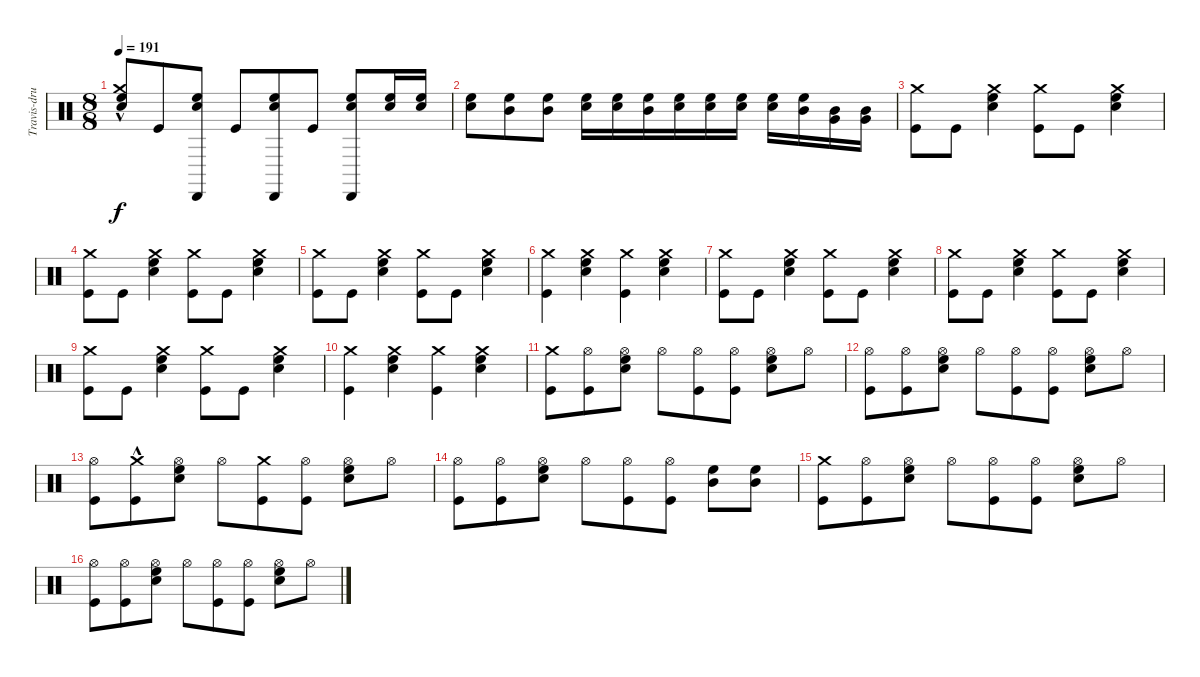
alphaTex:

\track ("Travis-drums" "Travis-dru") {instrument percussion}
\staff {score}
\articulation defaults
\ts (8 8)
\tempo 191
\clef neutral
\ks c
("High Floor Tom (hit)" "Crash medium (hit)"{hac} "Electric Snare (hit)").8{dy f} "Kick (hit)".8 ("High Floor Tom (hit)" "Cabasa (hit)" "Electric Snare (hit)").8 "Kick (hit)".8 ("High Floor Tom (hit)" "Cabasa (hit)" "Electric Snare (hit)").8 "Kick (hit)".8 ("High Floor Tom (hit)" "Cabasa (hit)" "Electric Snare (hit)").8 ("High Floor Tom (hit)" "Electric Snare (hit)").16 ("High Floor Tom (hit)" "Electric Snare (hit)").16 |
("High Floor Tom (hit)" "Electric Snare (hit)").8 ("Mid Tom (hit)" "High Floor Tom (hit)").8 ("Mid Tom (hit)" "High Floor Tom (hit)").8 ("High Floor Tom (hit)" "Electric Snare (hit)").16 ("High Floor Tom (hit)" "Electric Snare (hit)").16 ("Mid Tom (hit)" "High Floor Tom (hit)").16 ("Electric Snare (hit)" "High Floor Tom (hit)").16 ("High Floor Tom (hit)" "Electric Snare (hit)").16 ("High Floor Tom (hit)" "Electric Snare (hit)").16 ("Electric Snare (hit)" "High Floor Tom (hit)").16 ("Mid Tom (hit)" "High Floor Tom (hit)").16 ("Very Low Tom (hit)" "Mid Tom (hit)").16 ("Very Low Tom (hit)" "Mid Tom (hit)").16 |
("Crash medium (hit)" "Kick (hit)").8 "Kick (hit)".8 ("Crash medium (hit)" "High Floor Tom (hit)" "Electric Snare (hit)").4 ("Crash medium (hit)" "Kick (hit)").8 "Kick (hit)".8 ("Crash medium (hit)" "High Floor Tom (hit)" "Electric Snare (hit)").4 |
("Crash medium (hit)" "Kick (hit)").8 "Kick (hit)".8 ("Crash medium (hit)" "High Floor Tom (hit)" "Electric Snare (hit)").4 ("Crash medium (hit)" "Kick (hit)").8 "Kick (hit)".8 ("Crash medium (hit)" "High Floor Tom (hit)" "Electric Snare (hit)").4 |
("Crash medium (hit)" "Kick (hit)").8 "Kick (hit)".8 ("Crash medium (hit)" "High Floor Tom (hit)" "Electric Snare (hit)").4 ("Crash medium (hit)" "Kick (hit)").8 "Kick (hit)".8 ("Crash medium (hit)" "High Floor Tom (hit)" "Electric Snare (hit)").4 |
("Crash medium (hit)" "Kick (hit)").4 ("Crash medium (hit)" "High Floor Tom (hit)" "Electric Snare (hit)").4 ("Crash medium (hit)" "Kick (hit)").4 ("Crash medium (hit)" "High Floor Tom (hit)" "Electric Snare (hit)").4 |
("Crash medium (hit)" "Kick (hit)").8 "Kick (hit)".8 ("Crash medium (hit)" "High Floor Tom (hit)" "Electric Snare (hit)").4 ("Crash medium (hit)" "Kick (hit)").8 "Kick (hit)".8 ("Crash medium (hit)" "High Floor Tom (hit)" "Electric Snare (hit)").4 |
("Crash medium (hit)" "Kick (hit)").8 "Kick (hit)".8 ("Crash medium (hit)" "High Floor Tom (hit)" "Electric Snare (hit)").4 ("Crash medium (hit)" "Kick (hit)").8 "Kick (hit)".8 ("Crash medium (hit)" "High Floor Tom (hit)" "Electric Snare (hit)").4 |
("Crash medium (hit)" "Kick (hit)").8 "Kick (hit)".8 ("Crash medium (hit)" "High Floor Tom (hit)" "Electric Snare (hit)").4 ("Crash medium (hit)" "Kick (hit)").8 "Kick (hit)".8 ("Crash medium (hit)" "High Floor Tom (hit)" "Electric Snare (hit)").4 |
("Crash medium (hit)" "Kick (hit)").4 ("Crash medium (hit)" "High Floor Tom (hit)" "Electric Snare (hit)").4 ("Crash medium (hit)" "Kick (hit)").4 ("Crash medium (hit)" "High Floor Tom (hit)" "Electric Snare (hit)").4 |
("Crash medium (hit)" "Kick (hit)").8 ("Kick (hit)" "Hi-Hat (open)").8 ("High Floor Tom (hit)" "Snare (hit) 2" "Hi-Hat (open)").8 "Hi-Hat (open)".8 ("Kick (hit)" "Hi-Hat (open)").8 ("Kick (hit)" "Hi-Hat (open)").8 ("High Floor Tom (hit)" "Snare (hit) 2" "Hi-Hat (open)").8 "Hi-Hat (open)".8 |
("Kick (hit)" "Hi-Hat (open)").8 ("Kick (hit)" "Hi-Hat (open)").8 ("High Floor Tom (hit)" "Snare (hit) 2" "Hi-Hat (open)").8 "Hi-Hat (open)".8 ("Kick (hit)" "Hi-Hat (open)").8 ("Kick (hit)" "Hi-Hat (open)").8 ("High Floor Tom (hit)" "Snare (hit) 2" "Hi-Hat (open)").8 "Hi-Hat (open)".8 |
("Kick (hit)" "Hi-Hat (open)").8 ("Crash medium (hit)"{hac} "Kick (hit)").8 ("High Floor Tom (hit)" "Snare (hit) 2" "Hi-Hat (open)").8 "Hi-Hat (open)".8 ("Crash medium (hit)" "Kick (hit)").8 ("Kick (hit)" "Hi-Hat (open)").8 ("High Floor Tom (hit)" "Snare (hit) 2" "Hi-Hat (open)").8 "Hi-Hat (open)".8 |
("Kick (hit)" "Hi-Hat (open)").8 ("Kick (hit)" "Hi-Hat (open)").8 ("High Floor Tom (hit)" "Snare (hit) 2" "Hi-Hat (open)").8 "Hi-Hat (open)".8 ("Kick (hit)" "Hi-Hat (open)").8 ("Kick (hit)" "Hi-Hat (open)").8 ("Mid Tom (hit)" "High Floor Tom (hit)").8 ("High Floor Tom (hit)" "Mid Tom (hit)").8 |
("Crash medium (hit)" "Kick (hit)").8 ("Kick (hit)" "Hi-Hat (open)").8 ("High Floor Tom (hit)" "Snare (hit) 2" "Hi-Hat (open)").8 "Hi-Hat (open)".8 ("Kick (hit)" "Hi-Hat (open)").8 ("Kick (hit)" "Hi-Hat (open)").8 ("High Floor Tom (hit)" "Snare (hit) 2" "Hi-Hat (open)").8 "Hi-Hat (open)".8 |
("Kick (hit)" "Hi-Hat (open)").8 ("Kick (hit)" "Hi-Hat (open)").8 ("High Floor Tom (hit)" "Snare (hit) 2" "Hi-Hat (open)").8 "Hi-Hat (open)".8 ("Kick (hit)" "Hi-Hat (open)").8 ("Kick (hit)" "Hi-Hat (open)").8 ("High Floor Tom (hit)" "Snare (hit) 2" "Hi-Hat (open)").8 "Hi-Hat (open)".8
